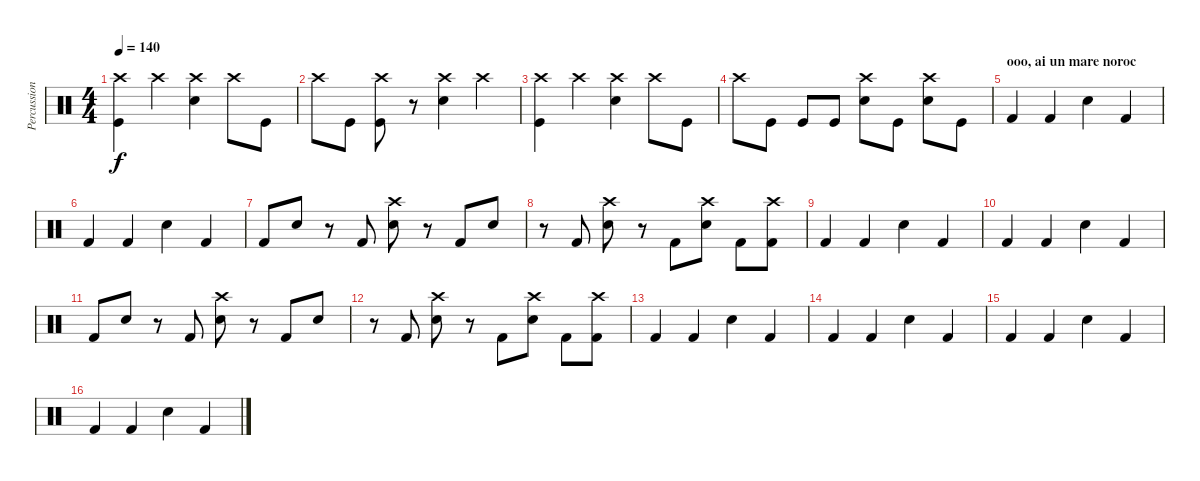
\track ("Percussion" "Percussion") {instrument percussion}
\staff {score}
\articulation defaults
\ts (4 4)
\tempo 140
\clef neutral
\ks c
("Kick (hit)" "Crash high (hit)").4{dy f} "Crash high (hit)".4 ("Snare (hit) 2" "Crash high (hit)").4 "Crash high (hit)".8 "Kick (hit)".8 |
"Crash high (hit)".8 "Kick (hit)".8 ("Kick (hit)" "Crash high (hit)").8 r.8 ("Snare (hit) 2" "Crash high (hit)").4 "Crash high (hit)".4 |
("Kick (hit)" "Crash high (hit)").4 "Crash high (hit)".4 ("Snare (hit) 2" "Crash high (hit)").4 "Crash high (hit)".8 "Kick (hit)".8 |
"Crash high (hit)".8 "Kick (hit)".8 "Kick (hit)".8 "Kick (hit)".8 ("Snare (hit) 2" "Crash high (hit)").8 "Kick (hit)".8 ("Snare (hit) 2" "Crash high (hit)").8 "Kick (hit)".8 |
\section ("" "ooo, ai un mare noroc")
"Kick (hit) 2".4 "Kick (hit) 2".4 "Snare (hit) 2".4 "Kick (hit) 2".4 |
"Kick (hit) 2".4 "Kick (hit) 2".4 "Snare (hit) 2".4 "Kick (hit) 2".4 |
"Kick (hit) 2".8 "Snare (hit) 2".8 r.8 "Kick (hit) 2".8 ("Snare (hit) 2" "Crash high (hit)").8 r.8 "Kick (hit) 2".8 "Snare (hit) 2".8 |
r.8 "Kick (hit) 2".8 ("Snare (hit) 2" "Crash high (hit)").8 r.8 "Kick (hit) 2".8 ("Snare (hit) 2" "Crash high (hit)").8 "Kick (hit) 2".8 ("Kick (hit) 2" "Crash high (hit)").8 |
"Kick (hit) 2".4 "Kick (hit) 2".4 "Snare (hit) 2".4 "Kick (hit) 2".4 |
"Kick (hit) 2".4 "Kick (hit) 2".4 "Snare (hit) 2".4 "Kick (hit) 2".4 |
"Kick (hit) 2".8 "Snare (hit) 2".8 r.8 "Kick (hit) 2".8 ("Snare (hit) 2" "Crash high (hit)").8 r.8 "Kick (hit) 2".8 "Snare (hit) 2".8 |
r.8 "Kick (hit) 2".8 ("Snare (hit) 2" "Crash high (hit)").8 r.8 "Kick (hit) 2".8 ("Snare (hit) 2" "Crash high (hit)").8 "Kick (hit) 2".8 ("Kick (hit) 2" "Crash high (hit)").8 |
"Kick (hit) 2".4 "Kick (hit) 2".4 "Snare (hit) 2".4 "Kick (hit) 2".4 |
"Kick (hit) 2".4 "Kick (hit) 2".4 "Snare (hit) 2".4 "Kick (hit) 2".4 |
"Kick (hit) 2".4 "Kick (hit) 2".4 "Snare (hit) 2".4 "Kick (hit) 2".4 |
"Kick (hit) 2".4 "Kick (hit) 2".4 "Snare (hit) 2".4 "Kick (hit) 2".4
